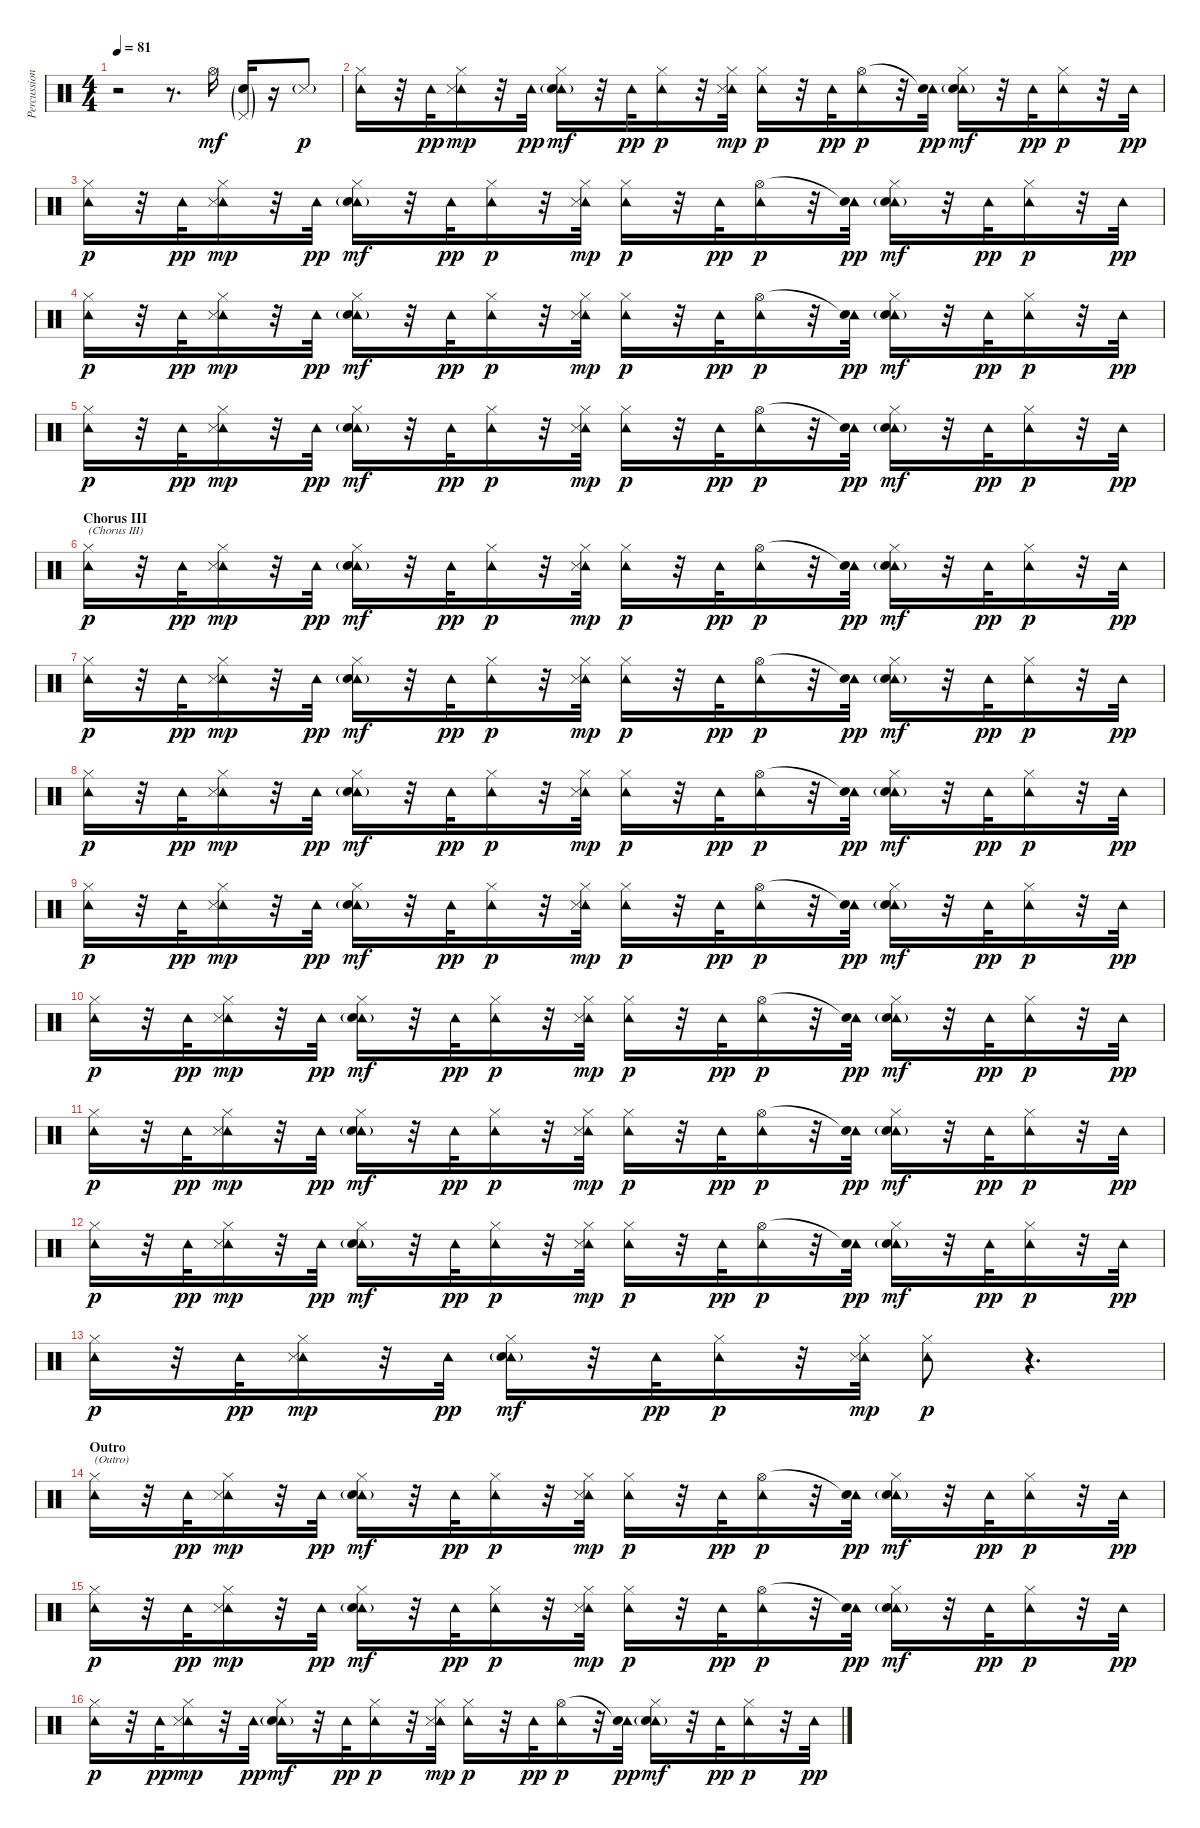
\track ("Percussion" "Percussion") {instrument percussion}
\staff {score}
\articulation defaults
\ts (4 4)
\tempo 81
\clef neutral
\ks c
r.2{dy p} r.8{d} "Hi-Hat (open)".16{dy mf} ("Pedal Hi-Hat (hit)"{g} "Snare (hit) 2"{g}).16 r.16 "Snare (side stick) 3"{g}.8{dy p} |
("Tambourine (hit)" "Hi-Hat (closed)").16 r.32 "Tambourine (hit)".32{dy pp} ("Tambourine (hit)" "Hi-Hat (closed)" "Snare (side stick) 3").16{dy mp} r.32 "Tambourine (hit)".32{dy pp} ("Tambourine (hit)" "Hi-Hat (closed)" "Snare (hit) 2"{g}).16{dy mf} r.32 "Tambourine (hit)".32{dy pp} ("Tambourine (hit)" "Hi-Hat (closed)").16{dy p} r.32 ("Tambourine (hit)" "Hi-Hat (closed)" "Snare (side stick) 3").32{dy mp} ("Tambourine (hit)" "Hi-Hat (closed)").16{dy p} r.32 "Tambourine (hit)".32{dy pp} ("Tambourine (hit)" "Hi-Hat (open)").16{dy p} r.32 ("Tambourine (hit)" "Snare (hit)"{t}).32{dy pp} ("Tambourine (hit)" "Hi-Hat (closed)" "Snare (hit) 2"{g}).16{dy mf} r.32 "Tambourine (hit)".32{dy pp} ("Tambourine (hit)" "Hi-Hat (closed)").16{dy p} r.32 "Tambourine (hit)".32{dy pp} |
("Tambourine (hit)" "Hi-Hat (closed)").16{dy p} r.32 "Tambourine (hit)".32{dy pp} ("Tambourine (hit)" "Hi-Hat (closed)" "Snare (side stick) 3").16{dy mp} r.32 "Tambourine (hit)".32{dy pp} ("Tambourine (hit)" "Hi-Hat (closed)" "Snare (hit) 2"{g}).16{dy mf} r.32 "Tambourine (hit)".32{dy pp} ("Tambourine (hit)" "Hi-Hat (closed)").16{dy p} r.32 ("Tambourine (hit)" "Hi-Hat (closed)" "Snare (side stick) 3").32{dy mp} ("Tambourine (hit)" "Hi-Hat (closed)").16{dy p} r.32 "Tambourine (hit)".32{dy pp} ("Tambourine (hit)" "Hi-Hat (open)").16{dy p} r.32 ("Tambourine (hit)" "Snare (hit)"{t}).32{dy pp} ("Tambourine (hit)" "Hi-Hat (closed)" "Snare (hit) 2"{g}).16{dy mf} r.32 "Tambourine (hit)".32{dy pp} ("Tambourine (hit)" "Hi-Hat (closed)").16{dy p} r.32 "Tambourine (hit)".32{dy pp} |
("Tambourine (hit)" "Hi-Hat (closed)").16{dy p} r.32 "Tambourine (hit)".32{dy pp} ("Tambourine (hit)" "Hi-Hat (closed)" "Snare (side stick) 3").16{dy mp} r.32 "Tambourine (hit)".32{dy pp} ("Tambourine (hit)" "Hi-Hat (closed)" "Snare (hit) 2"{g}).16{dy mf} r.32 "Tambourine (hit)".32{dy pp} ("Tambourine (hit)" "Hi-Hat (closed)").16{dy p} r.32 ("Tambourine (hit)" "Hi-Hat (closed)" "Snare (side stick) 3").32{dy mp} ("Tambourine (hit)" "Hi-Hat (closed)").16{dy p} r.32 "Tambourine (hit)".32{dy pp} ("Tambourine (hit)" "Hi-Hat (open)").16{dy p} r.32 ("Tambourine (hit)" "Snare (hit)"{t}).32{dy pp} ("Tambourine (hit)" "Hi-Hat (closed)" "Snare (hit) 2"{g}).16{dy mf} r.32 "Tambourine (hit)".32{dy pp} ("Tambourine (hit)" "Hi-Hat (closed)").16{dy p} r.32 "Tambourine (hit)".32{dy pp} |
("Tambourine (hit)" "Hi-Hat (closed)").16{dy p} r.32 "Tambourine (hit)".32{dy pp} ("Tambourine (hit)" "Hi-Hat (closed)" "Snare (side stick) 3").16{dy mp} r.32 "Tambourine (hit)".32{dy pp} ("Tambourine (hit)" "Hi-Hat (closed)" "Snare (hit) 2"{g}).16{dy mf} r.32 "Tambourine (hit)".32{dy pp} ("Tambourine (hit)" "Hi-Hat (closed)").16{dy p} r.32 ("Tambourine (hit)" "Hi-Hat (closed)" "Snare (side stick) 3").32{dy mp} ("Tambourine (hit)" "Hi-Hat (closed)").16{dy p} r.32 "Tambourine (hit)".32{dy pp} ("Tambourine (hit)" "Hi-Hat (open)").16{dy p} r.32 ("Tambourine (hit)" "Snare (hit)"{t}).32{dy pp} ("Tambourine (hit)" "Hi-Hat (closed)" "Snare (hit) 2"{g}).16{dy mf} r.32 "Tambourine (hit)".32{dy pp} ("Tambourine (hit)" "Hi-Hat (closed)").16{dy p} r.32 "Tambourine (hit)".32{dy pp} |
\section ("" "Chorus III")
("Tambourine (hit)" "Hi-Hat (closed)").16{txt "(Chorus III)" dy p} r.32 "Tambourine (hit)".32{dy pp} ("Tambourine (hit)" "Hi-Hat (closed)" "Snare (side stick) 3").16{dy mp} r.32 "Tambourine (hit)".32{dy pp} ("Tambourine (hit)" "Hi-Hat (closed)" "Snare (hit) 2"{g}).16{dy mf} r.32 "Tambourine (hit)".32{dy pp} ("Tambourine (hit)" "Hi-Hat (closed)").16{dy p} r.32 ("Tambourine (hit)" "Hi-Hat (closed)" "Snare (side stick) 3").32{dy mp} ("Tambourine (hit)" "Hi-Hat (closed)").16{dy p} r.32 "Tambourine (hit)".32{dy pp} ("Tambourine (hit)" "Hi-Hat (open)").16{dy p} r.32 ("Tambourine (hit)" "Snare (hit)"{t}).32{dy pp} ("Tambourine (hit)" "Hi-Hat (closed)" "Snare (hit) 2"{g}).16{dy mf} r.32 "Tambourine (hit)".32{dy pp} ("Tambourine (hit)" "Hi-Hat (closed)").16{dy p} r.32 "Tambourine (hit)".32{dy pp} |
("Tambourine (hit)" "Hi-Hat (closed)").16{dy p} r.32 "Tambourine (hit)".32{dy pp} ("Tambourine (hit)" "Hi-Hat (closed)" "Snare (side stick) 3").16{dy mp} r.32 "Tambourine (hit)".32{dy pp} ("Tambourine (hit)" "Hi-Hat (closed)" "Snare (hit) 2"{g}).16{dy mf} r.32 "Tambourine (hit)".32{dy pp} ("Tambourine (hit)" "Hi-Hat (closed)").16{dy p} r.32 ("Tambourine (hit)" "Hi-Hat (closed)" "Snare (side stick) 3").32{dy mp} ("Tambourine (hit)" "Hi-Hat (closed)").16{dy p} r.32 "Tambourine (hit)".32{dy pp} ("Tambourine (hit)" "Hi-Hat (open)").16{dy p} r.32 ("Tambourine (hit)" "Snare (hit)"{t}).32{dy pp} ("Tambourine (hit)" "Hi-Hat (closed)" "Snare (hit) 2"{g}).16{dy mf} r.32 "Tambourine (hit)".32{dy pp} ("Tambourine (hit)" "Hi-Hat (closed)").16{dy p} r.32 "Tambourine (hit)".32{dy pp} |
("Tambourine (hit)" "Hi-Hat (closed)").16{dy p} r.32 "Tambourine (hit)".32{dy pp} ("Tambourine (hit)" "Hi-Hat (closed)" "Snare (side stick) 3").16{dy mp} r.32 "Tambourine (hit)".32{dy pp} ("Tambourine (hit)" "Hi-Hat (closed)" "Snare (hit) 2"{g}).16{dy mf} r.32 "Tambourine (hit)".32{dy pp} ("Tambourine (hit)" "Hi-Hat (closed)").16{dy p} r.32 ("Tambourine (hit)" "Hi-Hat (closed)" "Snare (side stick) 3").32{dy mp} ("Tambourine (hit)" "Hi-Hat (closed)").16{dy p} r.32 "Tambourine (hit)".32{dy pp} ("Tambourine (hit)" "Hi-Hat (open)").16{dy p} r.32 ("Tambourine (hit)" "Snare (hit)"{t}).32{dy pp} ("Tambourine (hit)" "Hi-Hat (closed)" "Snare (hit) 2"{g}).16{dy mf} r.32 "Tambourine (hit)".32{dy pp} ("Tambourine (hit)" "Hi-Hat (closed)").16{dy p} r.32 "Tambourine (hit)".32{dy pp} |
("Tambourine (hit)" "Hi-Hat (closed)").16{dy p} r.32 "Tambourine (hit)".32{dy pp} ("Tambourine (hit)" "Hi-Hat (closed)" "Snare (side stick) 3").16{dy mp} r.32 "Tambourine (hit)".32{dy pp} ("Tambourine (hit)" "Hi-Hat (closed)" "Snare (hit) 2"{g}).16{dy mf} r.32 "Tambourine (hit)".32{dy pp} ("Tambourine (hit)" "Hi-Hat (closed)").16{dy p} r.32 ("Tambourine (hit)" "Hi-Hat (closed)" "Snare (side stick) 3").32{dy mp} ("Tambourine (hit)" "Hi-Hat (closed)").16{dy p} r.32 "Tambourine (hit)".32{dy pp} ("Tambourine (hit)" "Hi-Hat (open)").16{dy p} r.32 ("Tambourine (hit)" "Snare (hit)"{t}).32{dy pp} ("Tambourine (hit)" "Hi-Hat (closed)" "Snare (hit) 2"{g}).16{dy mf} r.32 "Tambourine (hit)".32{dy pp} ("Tambourine (hit)" "Hi-Hat (closed)").16{dy p} r.32 "Tambourine (hit)".32{dy pp} |
("Tambourine (hit)" "Hi-Hat (closed)").16{dy p} r.32 "Tambourine (hit)".32{dy pp} ("Tambourine (hit)" "Hi-Hat (closed)" "Snare (side stick) 3").16{dy mp} r.32 "Tambourine (hit)".32{dy pp} ("Tambourine (hit)" "Hi-Hat (closed)" "Snare (hit) 2"{g}).16{dy mf} r.32 "Tambourine (hit)".32{dy pp} ("Tambourine (hit)" "Hi-Hat (closed)").16{dy p} r.32 ("Tambourine (hit)" "Hi-Hat (closed)" "Snare (side stick) 3").32{dy mp} ("Tambourine (hit)" "Hi-Hat (closed)").16{dy p} r.32 "Tambourine (hit)".32{dy pp} ("Tambourine (hit)" "Hi-Hat (open)").16{dy p} r.32 ("Tambourine (hit)" "Snare (hit)"{t}).32{dy pp} ("Tambourine (hit)" "Hi-Hat (closed)" "Snare (hit) 2"{g}).16{dy mf} r.32 "Tambourine (hit)".32{dy pp} ("Tambourine (hit)" "Hi-Hat (closed)").16{dy p} r.32 "Tambourine (hit)".32{dy pp} |
("Tambourine (hit)" "Hi-Hat (closed)").16{dy p} r.32 "Tambourine (hit)".32{dy pp} ("Tambourine (hit)" "Hi-Hat (closed)" "Snare (side stick) 3").16{dy mp} r.32 "Tambourine (hit)".32{dy pp} ("Tambourine (hit)" "Hi-Hat (closed)" "Snare (hit) 2"{g}).16{dy mf} r.32 "Tambourine (hit)".32{dy pp} ("Tambourine (hit)" "Hi-Hat (closed)").16{dy p} r.32 ("Tambourine (hit)" "Hi-Hat (closed)" "Snare (side stick) 3").32{dy mp} ("Tambourine (hit)" "Hi-Hat (closed)").16{dy p} r.32 "Tambourine (hit)".32{dy pp} ("Tambourine (hit)" "Hi-Hat (open)").16{dy p} r.32 ("Tambourine (hit)" "Snare (hit)"{t}).32{dy pp} ("Tambourine (hit)" "Hi-Hat (closed)" "Snare (hit) 2"{g}).16{dy mf} r.32 "Tambourine (hit)".32{dy pp} ("Tambourine (hit)" "Hi-Hat (closed)").16{dy p} r.32 "Tambourine (hit)".32{dy pp} |
("Tambourine (hit)" "Hi-Hat (closed)").16{dy p} r.32 "Tambourine (hit)".32{dy pp} ("Tambourine (hit)" "Hi-Hat (closed)" "Snare (side stick) 3").16{dy mp} r.32 "Tambourine (hit)".32{dy pp} ("Tambourine (hit)" "Hi-Hat (closed)" "Snare (hit) 2"{g}).16{dy mf} r.32 "Tambourine (hit)".32{dy pp} ("Tambourine (hit)" "Hi-Hat (closed)").16{dy p} r.32 ("Tambourine (hit)" "Hi-Hat (closed)" "Snare (side stick) 3").32{dy mp} ("Tambourine (hit)" "Hi-Hat (closed)").16{dy p} r.32 "Tambourine (hit)".32{dy pp} ("Tambourine (hit)" "Hi-Hat (open)").16{dy p} r.32 ("Tambourine (hit)" "Snare (hit)"{t}).32{dy pp} ("Tambourine (hit)" "Hi-Hat (closed)" "Snare (hit) 2"{g}).16{dy mf} r.32 "Tambourine (hit)".32{dy pp} ("Tambourine (hit)" "Hi-Hat (closed)").16{dy p} r.32 "Tambourine (hit)".32{dy pp} |
("Tambourine (hit)" "Hi-Hat (closed)").16{dy p} r.32 "Tambourine (hit)".32{dy pp} ("Tambourine (hit)" "Hi-Hat (closed)" "Snare (side stick) 3").16{dy mp} r.32 "Tambourine (hit)".32{dy pp} ("Tambourine (hit)" "Hi-Hat (closed)" "Snare (hit) 2"{g}).16{dy mf} r.32 "Tambourine (hit)".32{dy pp} ("Tambourine (hit)" "Hi-Hat (closed)").16{dy p} r.32 ("Tambourine (hit)" "Hi-Hat (closed)" "Snare (side stick) 3").32{dy mp} ("Tambourine (hit)" "Hi-Hat (closed)").8{dy p} r.4{d} |
\section ("" "Outro")
("Tambourine (hit)" "Hi-Hat (closed)").16{txt "(Outro)"} r.32 "Tambourine (hit)".32{dy pp} ("Tambourine (hit)" "Hi-Hat (closed)" "Snare (side stick) 3").16{dy mp} r.32 "Tambourine (hit)".32{dy pp} ("Tambourine (hit)" "Hi-Hat (closed)" "Snare (hit) 2"{g}).16{dy mf} r.32 "Tambourine (hit)".32{dy pp} ("Tambourine (hit)" "Hi-Hat (closed)").16{dy p} r.32 ("Tambourine (hit)" "Hi-Hat (closed)" "Snare (side stick) 3").32{dy mp} ("Tambourine (hit)" "Hi-Hat (closed)").16{dy p} r.32 "Tambourine (hit)".32{dy pp} ("Tambourine (hit)" "Hi-Hat (open)").16{dy p} r.32 ("Tambourine (hit)" "Snare (hit)"{t}).32{dy pp} ("Tambourine (hit)" "Hi-Hat (closed)" "Snare (hit) 2"{g}).16{dy mf} r.32 "Tambourine (hit)".32{dy pp} ("Tambourine (hit)" "Hi-Hat (closed)").16{dy p} r.32 "Tambourine (hit)".32{dy pp} |
("Tambourine (hit)" "Hi-Hat (closed)").16{dy p} r.32 "Tambourine (hit)".32{dy pp} ("Tambourine (hit)" "Hi-Hat (closed)" "Snare (side stick) 3").16{dy mp} r.32 "Tambourine (hit)".32{dy pp} ("Tambourine (hit)" "Hi-Hat (closed)" "Snare (hit) 2"{g}).16{dy mf} r.32 "Tambourine (hit)".32{dy pp} ("Tambourine (hit)" "Hi-Hat (closed)").16{dy p} r.32 ("Tambourine (hit)" "Hi-Hat (closed)" "Snare (side stick) 3").32{dy mp} ("Tambourine (hit)" "Hi-Hat (closed)").16{dy p} r.32 "Tambourine (hit)".32{dy pp} ("Tambourine (hit)" "Hi-Hat (open)").16{dy p} r.32 ("Tambourine (hit)" "Snare (hit)"{t}).32{dy pp} ("Tambourine (hit)" "Hi-Hat (closed)" "Snare (hit) 2"{g}).16{dy mf} r.32 "Tambourine (hit)".32{dy pp} ("Tambourine (hit)" "Hi-Hat (closed)").16{dy p} r.32 "Tambourine (hit)".32{dy pp} |
("Tambourine (hit)" "Hi-Hat (closed)").16{dy p} r.32 "Tambourine (hit)".32{dy pp} ("Tambourine (hit)" "Hi-Hat (closed)" "Snare (side stick) 3").16{dy mp} r.32 "Tambourine (hit)".32{dy pp} ("Tambourine (hit)" "Hi-Hat (closed)" "Snare (hit) 2"{g}).16{dy mf} r.32 "Tambourine (hit)".32{dy pp} ("Tambourine (hit)" "Hi-Hat (closed)").16{dy p} r.32 ("Tambourine (hit)" "Hi-Hat (closed)" "Snare (side stick) 3").32{dy mp} ("Tambourine (hit)" "Hi-Hat (closed)").16{dy p} r.32 "Tambourine (hit)".32{dy pp} ("Tambourine (hit)" "Hi-Hat (open)").16{dy p} r.32 ("Tambourine (hit)" "Snare (hit)"{t}).32{dy pp} ("Tambourine (hit)" "Hi-Hat (closed)" "Snare (hit) 2"{g}).16{dy mf} r.32 "Tambourine (hit)".32{dy pp} ("Tambourine (hit)" "Hi-Hat (closed)").16{dy p} r.32 "Tambourine (hit)".32{dy pp}
